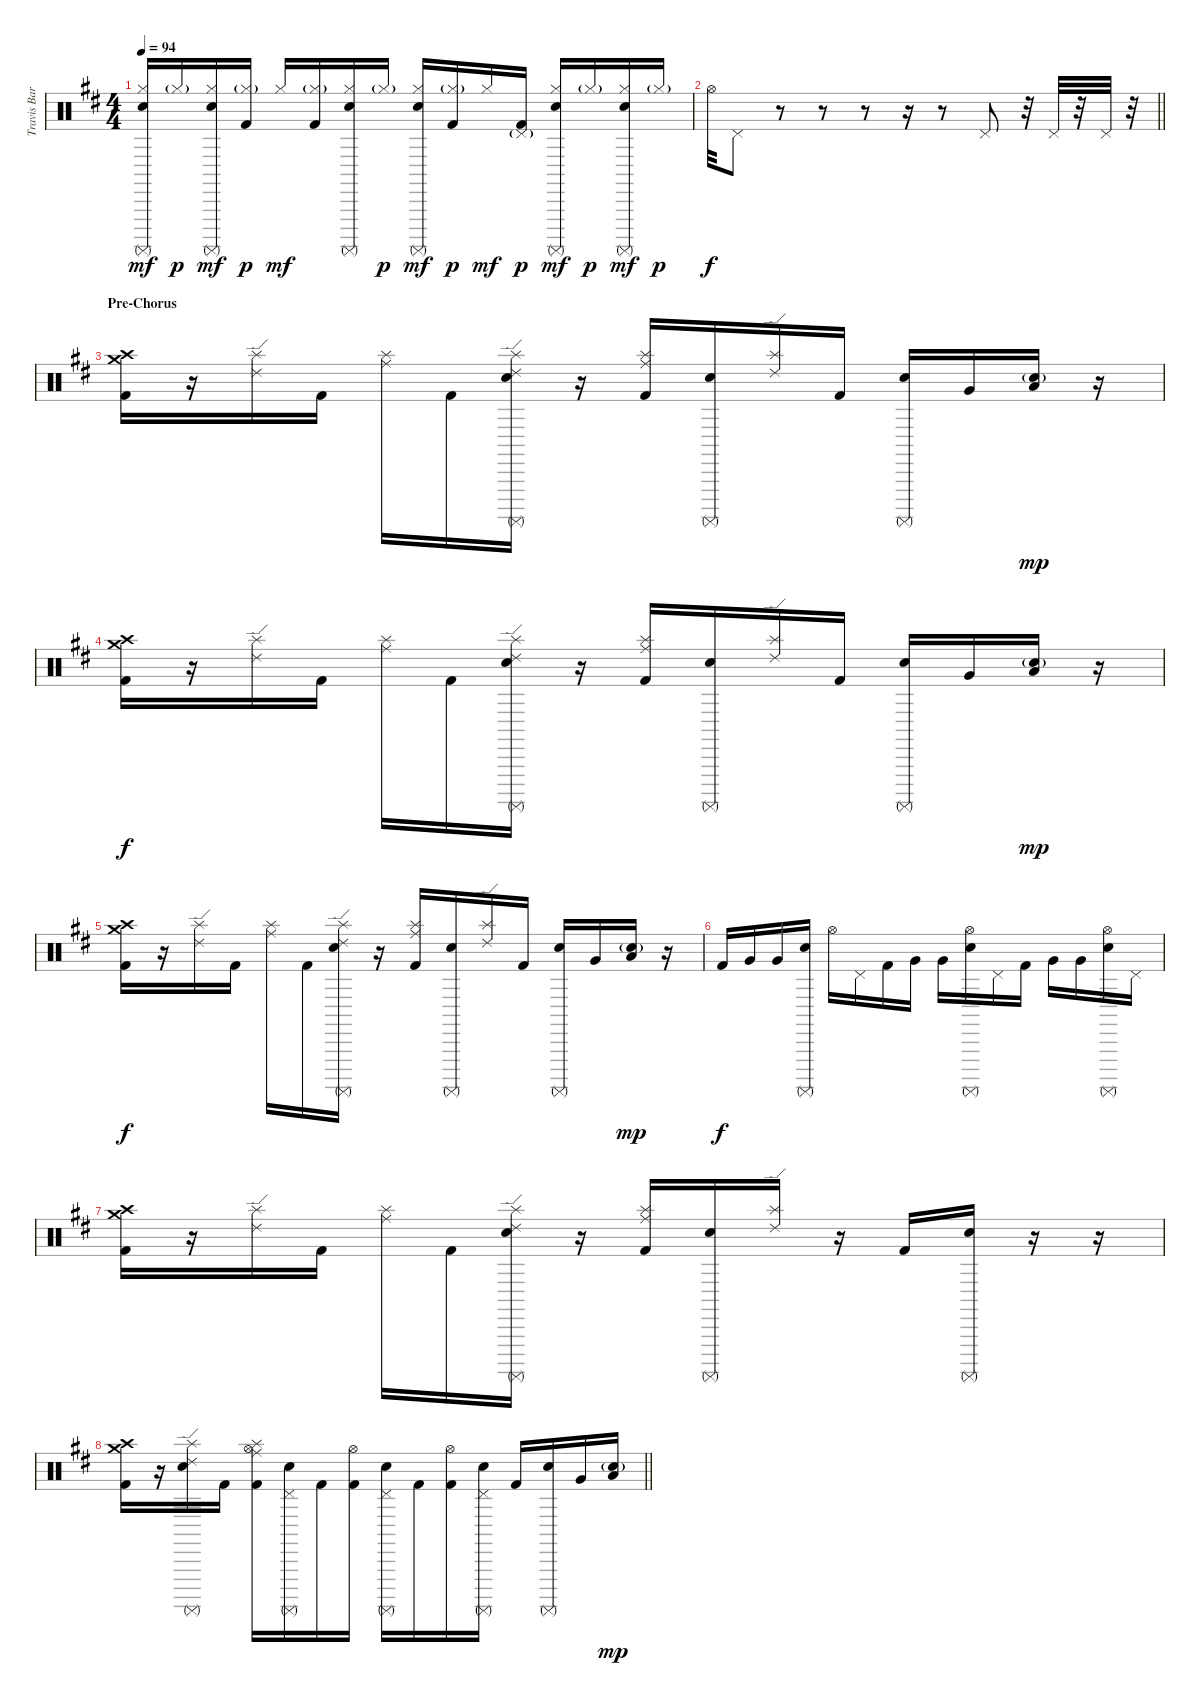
\track ("Travis Barker" "Travis Bar") {instrument percussion}
\staff {score}
\articulation defaults
\ts (4 4)
\tempo 94
\clef neutral
\ks d
("Hi-Hat (closed)" "Electric Snare (hit)" "Surdo (mute)").16{dy mf} "Hi-Hat (closed)"{g}.16{dy p} ("Hi-Hat (closed)" "Electric Snare (hit)" "Surdo (mute)").16{dy mf} ("Hi-Hat (closed)"{g} "Kick (hit) 2").16{dy p} "Hi-Hat (closed)".16{dy mf} ("Hi-Hat (closed)"{g} "Kick (hit) 2").16 ("Hi-Hat (closed)" "Electric Snare (hit)" "Surdo (mute)").16 "Hi-Hat (closed)"{g}.16{dy p} ("Hi-Hat (closed)" "Electric Snare (hit)" "Surdo (mute)").16{dy mf} ("Hi-Hat (closed)"{g} "Kick (hit) 2").16{dy p} "Hi-Hat (closed)".16{dy mf} ("Pedal Hi-Hat (hit)"{g} "Kick (hit) 2").16{dy p} ("Hi-Hat (closed)" "Electric Snare (hit)" "Surdo (mute)").16{dy mf} "Hi-Hat (closed)"{g}.16{dy p} ("Hi-Hat (closed)" "Electric Snare (hit)" "Surdo (mute)").16{dy mf} "Hi-Hat (closed)"{g}.16{dy p} |
\barLineRight lightlight "Hi-Hat (open)".32{dy f} "Pedal Hi-Hat (hit)".8
r.8 r.8 r.8 r.16 r.8 "Pedal Hi-Hat (hit)".8 r.32 "Pedal Hi-Hat (hit)".32 r.32 "Pedal Hi-Hat (hit)".32 r.32 |
\section ("" "Pre-Chorus")
("Crash medium (hit)" "Crash high (hit)" "Kick (hit) 2").16 r.16 ("Ride (edge) 2" "Splash (hit)").16 "Kick (hit) 2".16 ("Ride (middle)" "Splash (hit)").16 "Kick (hit) 2".16 ("Ride (edge) 2" "Splash (hit)" "Electric Snare (hit)" "Surdo (mute)").16 r.16 ("Ride (middle)" "Splash (hit)" "Kick (hit) 2").16 ("Electric Snare (hit)" "Surdo (mute)").16 ("Ride (edge) 2" "Splash (hit)").16 "Kick (hit) 2".16 ("Electric Snare (hit)" "Surdo (mute)").16 "Very Low Tom (hit)".16 ("Low Floor Tom (hit)" "Electric Snare (hit)"{g}).16{dy mp} r.16 |
("Crash medium (hit)" "Crash high (hit)" "Kick (hit) 2").16{dy f} r.16 ("Ride (edge) 2" "Splash (hit)").16 "Kick (hit) 2".16 ("Ride (middle)" "Splash (hit)").16 "Kick (hit) 2".16 ("Ride (edge) 2" "Splash (hit)" "Electric Snare (hit)" "Surdo (mute)").16 r.16 ("Ride (middle)" "Splash (hit)" "Kick (hit) 2").16 ("Electric Snare (hit)" "Surdo (mute)").16 ("Ride (edge) 2" "Splash (hit)").16 "Kick (hit) 2".16 ("Electric Snare (hit)" "Surdo (mute)").16 "Very Low Tom (hit)".16 ("Low Floor Tom (hit)" "Electric Snare (hit)"{g}).16{dy mp} r.16 |
("Crash medium (hit)" "Crash high (hit)" "Kick (hit) 2").16{dy f} r.16 ("Ride (edge) 2" "Splash (hit)").16 "Kick (hit) 2".16 ("Ride (middle)" "Splash (hit)").16 "Kick (hit) 2".16 ("Ride (edge) 2" "Splash (hit)" "Electric Snare (hit)" "Surdo (mute)").16 r.16 ("Ride (middle)" "Splash (hit)" "Kick (hit) 2").16 ("Electric Snare (hit)" "Surdo (mute)").16 ("Ride (edge) 2" "Splash (hit)").16 "Kick (hit) 2".16 ("Electric Snare (hit)" "Surdo (mute)").16 "Very Low Tom (hit)".16 ("Low Floor Tom (hit)" "Electric Snare (hit)"{g}).16{dy mp} r.16 |
"Kick (hit) 2".16{dy f} "Very Low Tom (hit)".16 "Very Low Tom (hit)".16 ("Electric Snare (hit)" "Surdo (mute)").16 "Hi-Hat (open)".16 "Pedal Hi-Hat (hit)".16 "Kick (hit) 2".16 "Very Low Tom (hit)".16 "Very Low Tom (hit)".16 ("Hi-Hat (open)" "Electric Snare (hit)" "Surdo (mute)").16 "Pedal Hi-Hat (hit)".16 "Kick (hit) 2".16 "Very Low Tom (hit)".16 "Very Low Tom (hit)".16 ("Hi-Hat (open)" "Electric Snare (hit)" "Surdo (mute)").16 "Pedal Hi-Hat (hit)".16 |
("Crash medium (hit)" "Crash high (hit)" "Kick (hit) 2").16 r.16 ("Ride (edge) 2" "Splash (hit)").16 "Kick (hit) 2".16 ("Ride (middle)" "Splash (hit)").16 "Kick (hit) 2".16 ("Ride (edge) 2" "Splash (hit)" "Electric Snare (hit)" "Surdo (mute)").16 r.16 ("Ride (middle)" "Splash (hit)" "Kick (hit) 2").16 ("Electric Snare (hit)" "Surdo (mute)").16 ("Ride (edge) 2" "Splash (hit)").16 r.16 "Kick (hit) 2".16 ("Electric Snare (hit)" "Surdo (mute)").16 r.16 r.16 |
\barLineRight lightlight
("Crash medium (hit)" "Crash high (hit)" "Kick (hit) 2").16 r.16 ("Ride (edge) 2" "Splash (hit)" "Electric Snare (hit)" "Surdo (mute)").16 "Kick (hit) 2".16 ("Ride (middle)" "Splash (hit)" "Hi-Hat (open)" "Kick (hit) 2").16 ("Pedal Hi-Hat (hit)" "Electric Snare (hit)" "Surdo (mute)").16 "Kick (hit) 2".16 ("Hi-Hat (open)" "Kick (hit) 2").16 ("Pedal Hi-Hat (hit)" "Electric Snare (hit)" "Surdo (mute)").16 "Kick (hit) 2".16 ("Hi-Hat (open)" "Kick (hit) 2").16 ("Pedal Hi-Hat (hit)" "Electric Snare (hit)" "Surdo (mute)").16 "Kick (hit) 2".16 ("Electric Snare (hit)" "Surdo (mute)").16 "Very Low Tom (hit)".16 ("Low Floor Tom (hit)" "Electric Snare (hit)"{g}).16{dy mp}
